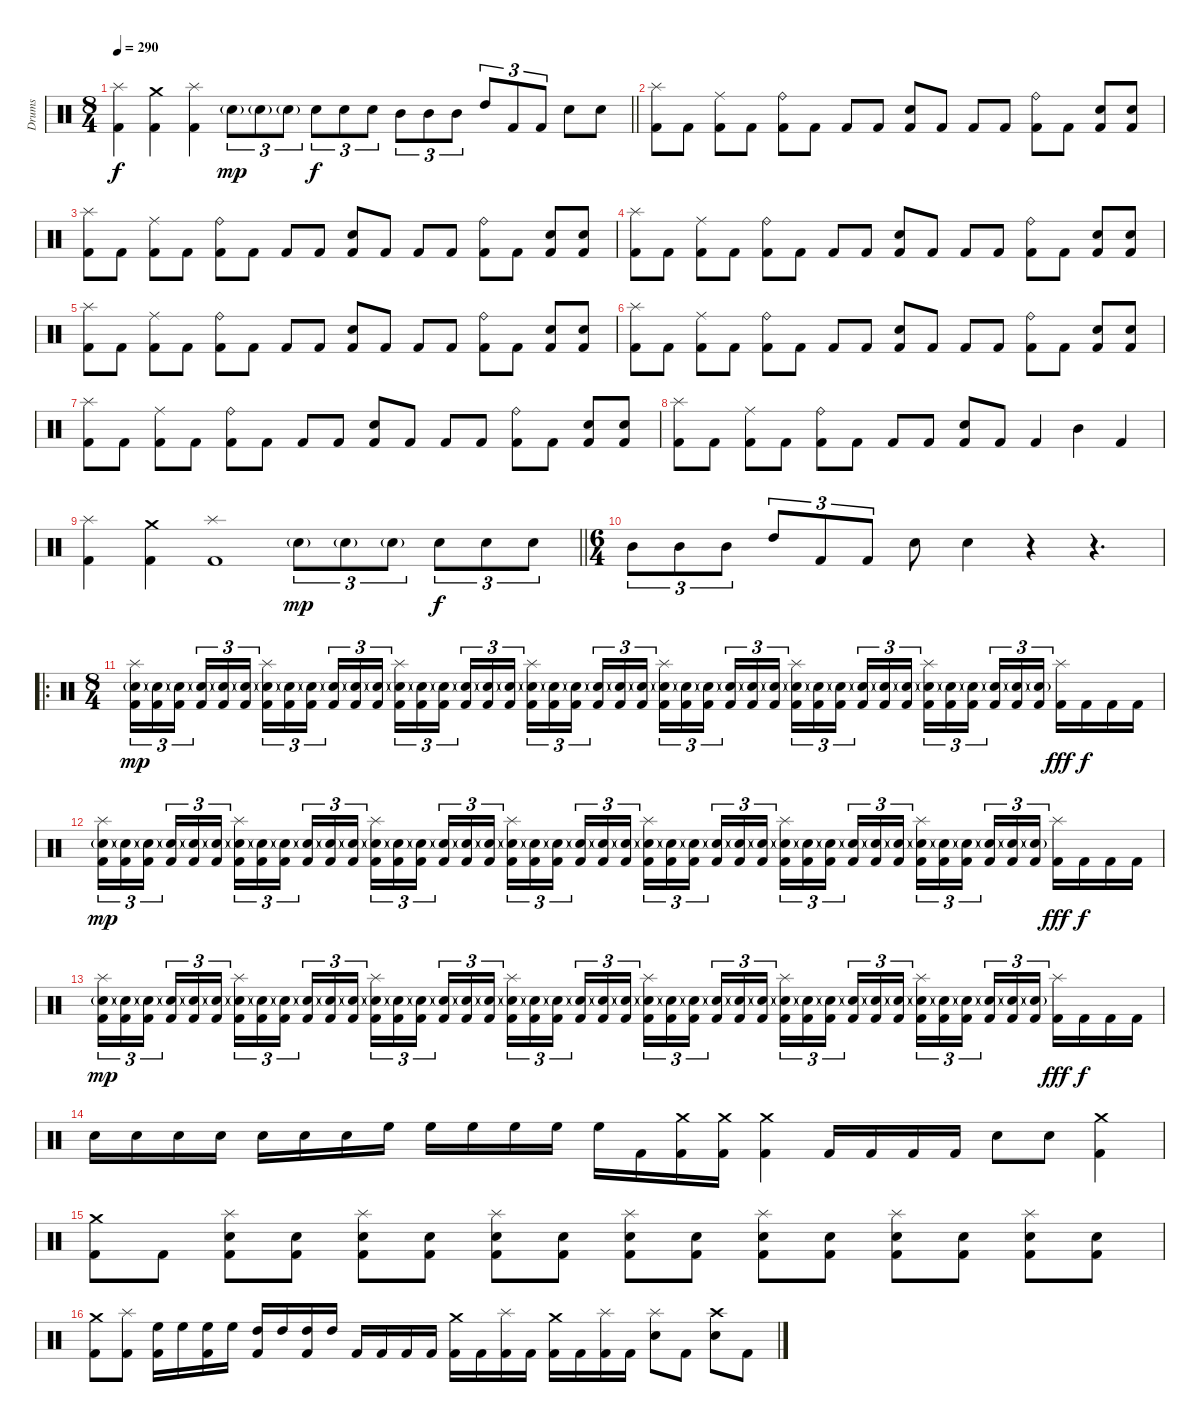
\track ("Drums" "Drums") {instrument percussion}
\staff {score}
\articulation defaults
\ts (8 4)
\tempo 290
\clef neutral
\barLineRight lightlight
\ks c
("Splash (hit)" "Kick (hit) 2").4{dy f} ("Crash medium (hit)" "Kick (hit) 2").4 ("Splash (hit)" "Kick (hit) 2").4 "Snare (hit) 2"{g}.8{tu (3 2) dy mp} "Snare (hit) 2"{g}.8{tu (3 2)} "Snare (hit) 2"{g}.8{tu (3 2)} "Snare (hit) 2".8{tu (3 2) dy f} "Snare (hit) 2".8{tu (3 2)} "Snare (hit) 2".8{tu (3 2)} "Mid Tom (hit)".8{tu (3 2)} "Mid Tom (hit)".8{tu (3 2)} "Mid Tom (hit)".8{tu (3 2)} "High Tom (hit)".8{tu (3 2)} "Kick (hit) 2".8{tu (3 2)} "Kick (hit) 2".8{tu (3 2)} "Snare (hit) 2".8 "Snare (hit) 2".8 |
("Splash (hit)" "Kick (hit) 2").8 "Kick (hit) 2".8 ("Ride (middle)" "Kick (hit) 2").8 "Kick (hit) 2".8 ("Ride (bell)" "Kick (hit) 2").8 "Kick (hit) 2".8 "Kick (hit) 2".8 "Kick (hit) 2".8 ("Snare (hit) 2" "Kick (hit) 2").8 "Kick (hit) 2".8 "Kick (hit) 2".8 "Kick (hit) 2".8 ("Ride (bell)" "Kick (hit) 2").8 "Kick (hit) 2".8 ("Snare (hit) 2" "Kick (hit) 2").8 ("Snare (hit) 2" "Kick (hit) 2").8 |
("Splash (hit)" "Kick (hit) 2").8 "Kick (hit) 2".8 ("Ride (middle)" "Kick (hit) 2").8 "Kick (hit) 2".8 ("Ride (bell)" "Kick (hit) 2").8 "Kick (hit) 2".8 "Kick (hit) 2".8 "Kick (hit) 2".8 ("Snare (hit) 2" "Kick (hit) 2").8 "Kick (hit) 2".8 "Kick (hit) 2".8 "Kick (hit) 2".8 ("Ride (bell)" "Kick (hit) 2").8 "Kick (hit) 2".8 ("Snare (hit) 2" "Kick (hit) 2").8 ("Snare (hit) 2" "Kick (hit) 2").8 |
("Splash (hit)" "Kick (hit) 2").8 "Kick (hit) 2".8 ("Ride (middle)" "Kick (hit) 2").8 "Kick (hit) 2".8 ("Ride (bell)" "Kick (hit) 2").8 "Kick (hit) 2".8 "Kick (hit) 2".8 "Kick (hit) 2".8 ("Snare (hit) 2" "Kick (hit) 2").8 "Kick (hit) 2".8 "Kick (hit) 2".8 "Kick (hit) 2".8 ("Ride (bell)" "Kick (hit) 2").8 "Kick (hit) 2".8 ("Snare (hit) 2" "Kick (hit) 2").8 ("Snare (hit) 2" "Kick (hit) 2").8 |
("Splash (hit)" "Kick (hit) 2").8 "Kick (hit) 2".8 ("Ride (middle)" "Kick (hit) 2").8 "Kick (hit) 2".8 ("Ride (bell)" "Kick (hit) 2").8 "Kick (hit) 2".8 "Kick (hit) 2".8 "Kick (hit) 2".8 ("Snare (hit) 2" "Kick (hit) 2").8 "Kick (hit) 2".8 "Kick (hit) 2".8 "Kick (hit) 2".8 ("Ride (bell)" "Kick (hit) 2").8 "Kick (hit) 2".8 ("Snare (hit) 2" "Kick (hit) 2").8 ("Snare (hit) 2" "Kick (hit) 2").8 |
("Splash (hit)" "Kick (hit) 2").8 "Kick (hit) 2".8 ("Ride (middle)" "Kick (hit) 2").8 "Kick (hit) 2".8 ("Ride (bell)" "Kick (hit) 2").8 "Kick (hit) 2".8 "Kick (hit) 2".8 "Kick (hit) 2".8 ("Snare (hit) 2" "Kick (hit) 2").8 "Kick (hit) 2".8 "Kick (hit) 2".8 "Kick (hit) 2".8 ("Ride (bell)" "Kick (hit) 2").8 "Kick (hit) 2".8 ("Snare (hit) 2" "Kick (hit) 2").8 ("Snare (hit) 2" "Kick (hit) 2").8 |
("Splash (hit)" "Kick (hit) 2").8 "Kick (hit) 2".8 ("Ride (middle)" "Kick (hit) 2").8 "Kick (hit) 2".8 ("Ride (bell)" "Kick (hit) 2").8 "Kick (hit) 2".8 "Kick (hit) 2".8 "Kick (hit) 2".8 ("Snare (hit) 2" "Kick (hit) 2").8 "Kick (hit) 2".8 "Kick (hit) 2".8 "Kick (hit) 2".8 ("Ride (bell)" "Kick (hit) 2").8 "Kick (hit) 2".8 ("Snare (hit) 2" "Kick (hit) 2").8 ("Snare (hit) 2" "Kick (hit) 2").8 |
("Splash (hit)" "Kick (hit) 2").8 "Kick (hit) 2".8 ("Ride (middle)" "Kick (hit) 2").8 "Kick (hit) 2".8 ("Ride (bell)" "Kick (hit) 2").8 "Kick (hit) 2".8 "Kick (hit) 2".8 "Kick (hit) 2".8 ("Snare (hit) 2" "Kick (hit) 2").8 "Kick (hit) 2".8 "Kick (hit) 2".4 "Mid Tom (hit)".4 "Kick (hit) 2".4 |
\barLineRight lightlight
("Splash (hit)" "Kick (hit) 2").4 ("Crash medium (hit)" "Kick (hit) 2").4 ("Splash (hit)" "Kick (hit) 2").1 "Snare (hit) 2"{g}.8{tu (3 2) dy mp} "Snare (hit) 2"{g}.8{tu (3 2)} "Snare (hit) 2"{g}.8{tu (3 2)} "Snare (hit) 2".8{tu (3 2) dy f} "Snare (hit) 2".8{tu (3 2)} "Snare (hit) 2".8{tu (3 2)} |
\ts (6 4)
"Mid Tom (hit)".8{tu (3 2)} "Mid Tom (hit)".8{tu (3 2)} "Mid Tom (hit)".8{tu (3 2)} "High Tom (hit)".8{tu (3 2)} "Kick (hit) 2".8{tu (3 2)} "Kick (hit) 2".8{tu (3 2)} "Snare (hit) 2".8 "Snare (hit) 2".4 r.4 r.4{d} |
\ro
\ts (8 4)
("Splash (hit)" "Snare (hit) 2"{g} "Kick (hit) 2").16{tu (3 2) dy mp} ("Snare (hit) 2"{g} "Kick (hit) 2").16{tu (3 2)} ("Snare (hit) 2"{g} "Kick (hit) 2").16{tu (3 2) beam splitsecondary} ("Snare (hit) 2"{g} "Kick (hit) 2").16{tu (3 2)} ("Snare (hit) 2"{g} "Kick (hit) 2").16{tu (3 2)} ("Snare (hit) 2"{g} "Kick (hit) 2").16{tu (3 2)} ("Splash (hit)" "Snare (hit) 2"{g} "Kick (hit) 2").16{tu (3 2)} ("Snare (hit) 2"{g} "Kick (hit) 2").16{tu (3 2)} ("Snare (hit) 2"{g} "Kick (hit) 2").16{tu (3 2) beam splitsecondary} ("Snare (hit) 2"{g} "Kick (hit) 2").16{tu (3 2)} ("Snare (hit) 2"{g} "Kick (hit) 2").16{tu (3 2)} ("Snare (hit) 2"{g} "Kick (hit) 2").16{tu (3 2)} ("Splash (hit)" "Snare (hit) 2"{g} "Kick (hit) 2").16{tu (3 2)} ("Snare (hit) 2"{g} "Kick (hit) 2").16{tu (3 2)} ("Snare (hit) 2"{g} "Kick (hit) 2").16{tu (3 2) beam splitsecondary} ("Snare (hit) 2"{g} "Kick (hit) 2").16{tu (3 2)} ("Snare (hit) 2"{g} "Kick (hit) 2").16{tu (3 2)} ("Snare (hit) 2"{g} "Kick (hit) 2").16{tu (3 2)} ("Splash (hit)" "Snare (hit) 2"{g} "Kick (hit) 2").16{tu (3 2)} ("Snare (hit) 2"{g} "Kick (hit) 2").16{tu (3 2)} ("Snare (hit) 2"{g} "Kick (hit) 2").16{tu (3 2) beam splitsecondary} ("Snare (hit) 2"{g} "Kick (hit) 2").16{tu (3 2)} ("Snare (hit) 2"{g} "Kick (hit) 2").16{tu (3 2)} ("Snare (hit) 2"{g} "Kick (hit) 2").16{tu (3 2)} ("Splash (hit)" "Snare (hit) 2"{g} "Kick (hit) 2").16{tu (3 2)} ("Snare (hit) 2"{g} "Kick (hit) 2").16{tu (3 2)} ("Snare (hit) 2"{g} "Kick (hit) 2").16{tu (3 2) beam splitsecondary} ("Snare (hit) 2"{g} "Kick (hit) 2").16{tu (3 2)} ("Snare (hit) 2"{g} "Kick (hit) 2").16{tu (3 2)} ("Snare (hit) 2"{g} "Kick (hit) 2").16{tu (3 2)} ("Splash (hit)" "Snare (hit) 2"{g} "Kick (hit) 2").16{tu (3 2)} ("Snare (hit) 2"{g} "Kick (hit) 2").16{tu (3 2)} ("Snare (hit) 2"{g} "Kick (hit) 2").16{tu (3 2) beam splitsecondary} ("Snare (hit) 2"{g} "Kick (hit) 2").16{tu (3 2)} ("Snare (hit) 2"{g} "Kick (hit) 2").16{tu (3 2)} ("Snare (hit) 2"{g} "Kick (hit) 2").16{tu (3 2)} ("Splash (hit)" "Snare (hit) 2"{g} "Kick (hit) 2").16{tu (3 2)} ("Snare (hit) 2"{g} "Kick (hit) 2").16{tu (3 2)} ("Snare (hit) 2"{g} "Kick (hit) 2").16{tu (3 2) beam splitsecondary} ("Snare (hit) 2"{g} "Kick (hit) 2").16{tu (3 2)} ("Snare (hit) 2"{g} "Kick (hit) 2").16{tu (3 2)} ("Snare (hit) 2"{g} "Kick (hit) 2").16{tu (3 2)} ("Splash (hit)" "Kick (hit) 2").16{dy fff} "Kick (hit) 2".16{dy f} "Kick (hit) 2".16 "Kick (hit) 2".16 |
("Splash (hit)" "Snare (hit) 2"{g} "Kick (hit) 2").16{tu (3 2) dy mp} ("Snare (hit) 2"{g} "Kick (hit) 2").16{tu (3 2)} ("Snare (hit) 2"{g} "Kick (hit) 2").16{tu (3 2) beam splitsecondary} ("Snare (hit) 2"{g} "Kick (hit) 2").16{tu (3 2)} ("Snare (hit) 2"{g} "Kick (hit) 2").16{tu (3 2)} ("Snare (hit) 2"{g} "Kick (hit) 2").16{tu (3 2)} ("Splash (hit)" "Snare (hit) 2"{g} "Kick (hit) 2").16{tu (3 2)} ("Snare (hit) 2"{g} "Kick (hit) 2").16{tu (3 2)} ("Snare (hit) 2"{g} "Kick (hit) 2").16{tu (3 2) beam splitsecondary} ("Snare (hit) 2"{g} "Kick (hit) 2").16{tu (3 2)} ("Snare (hit) 2"{g} "Kick (hit) 2").16{tu (3 2)} ("Snare (hit) 2"{g} "Kick (hit) 2").16{tu (3 2)} ("Splash (hit)" "Snare (hit) 2"{g} "Kick (hit) 2").16{tu (3 2)} ("Snare (hit) 2"{g} "Kick (hit) 2").16{tu (3 2)} ("Snare (hit) 2"{g} "Kick (hit) 2").16{tu (3 2) beam splitsecondary} ("Snare (hit) 2"{g} "Kick (hit) 2").16{tu (3 2)} ("Snare (hit) 2"{g} "Kick (hit) 2").16{tu (3 2)} ("Snare (hit) 2"{g} "Kick (hit) 2").16{tu (3 2)} ("Splash (hit)" "Snare (hit) 2"{g} "Kick (hit) 2").16{tu (3 2)} ("Snare (hit) 2"{g} "Kick (hit) 2").16{tu (3 2)} ("Snare (hit) 2"{g} "Kick (hit) 2").16{tu (3 2) beam splitsecondary} ("Snare (hit) 2"{g} "Kick (hit) 2").16{tu (3 2)} ("Snare (hit) 2"{g} "Kick (hit) 2").16{tu (3 2)} ("Snare (hit) 2"{g} "Kick (hit) 2").16{tu (3 2)} ("Splash (hit)" "Snare (hit) 2"{g} "Kick (hit) 2").16{tu (3 2)} ("Snare (hit) 2"{g} "Kick (hit) 2").16{tu (3 2)} ("Snare (hit) 2"{g} "Kick (hit) 2").16{tu (3 2) beam splitsecondary} ("Snare (hit) 2"{g} "Kick (hit) 2").16{tu (3 2)} ("Snare (hit) 2"{g} "Kick (hit) 2").16{tu (3 2)} ("Snare (hit) 2"{g} "Kick (hit) 2").16{tu (3 2)} ("Splash (hit)" "Snare (hit) 2"{g} "Kick (hit) 2").16{tu (3 2)} ("Snare (hit) 2"{g} "Kick (hit) 2").16{tu (3 2)} ("Snare (hit) 2"{g} "Kick (hit) 2").16{tu (3 2) beam splitsecondary} ("Snare (hit) 2"{g} "Kick (hit) 2").16{tu (3 2)} ("Snare (hit) 2"{g} "Kick (hit) 2").16{tu (3 2)} ("Snare (hit) 2"{g} "Kick (hit) 2").16{tu (3 2)} ("Splash (hit)" "Snare (hit) 2"{g} "Kick (hit) 2").16{tu (3 2)} ("Snare (hit) 2"{g} "Kick (hit) 2").16{tu (3 2)} ("Snare (hit) 2"{g} "Kick (hit) 2").16{tu (3 2) beam splitsecondary} ("Snare (hit) 2"{g} "Kick (hit) 2").16{tu (3 2)} ("Snare (hit) 2"{g} "Kick (hit) 2").16{tu (3 2)} ("Snare (hit) 2"{g} "Kick (hit) 2").16{tu (3 2)} ("Splash (hit)" "Kick (hit) 2").16{dy fff} "Kick (hit) 2".16{dy f} "Kick (hit) 2".16 "Kick (hit) 2".16 |
("Splash (hit)" "Snare (hit) 2"{g} "Kick (hit) 2").16{tu (3 2) dy mp} ("Snare (hit) 2"{g} "Kick (hit) 2").16{tu (3 2)} ("Snare (hit) 2"{g} "Kick (hit) 2").16{tu (3 2) beam splitsecondary} ("Snare (hit) 2"{g} "Kick (hit) 2").16{tu (3 2)} ("Snare (hit) 2"{g} "Kick (hit) 2").16{tu (3 2)} ("Snare (hit) 2"{g} "Kick (hit) 2").16{tu (3 2)} ("Splash (hit)" "Snare (hit) 2"{g} "Kick (hit) 2").16{tu (3 2)} ("Snare (hit) 2"{g} "Kick (hit) 2").16{tu (3 2)} ("Snare (hit) 2"{g} "Kick (hit) 2").16{tu (3 2) beam splitsecondary} ("Snare (hit) 2"{g} "Kick (hit) 2").16{tu (3 2)} ("Snare (hit) 2"{g} "Kick (hit) 2").16{tu (3 2)} ("Snare (hit) 2"{g} "Kick (hit) 2").16{tu (3 2)} ("Splash (hit)" "Snare (hit) 2"{g} "Kick (hit) 2").16{tu (3 2)} ("Snare (hit) 2"{g} "Kick (hit) 2").16{tu (3 2)} ("Snare (hit) 2"{g} "Kick (hit) 2").16{tu (3 2) beam splitsecondary} ("Snare (hit) 2"{g} "Kick (hit) 2").16{tu (3 2)} ("Snare (hit) 2"{g} "Kick (hit) 2").16{tu (3 2)} ("Snare (hit) 2"{g} "Kick (hit) 2").16{tu (3 2)} ("Splash (hit)" "Snare (hit) 2"{g} "Kick (hit) 2").16{tu (3 2)} ("Snare (hit) 2"{g} "Kick (hit) 2").16{tu (3 2)} ("Snare (hit) 2"{g} "Kick (hit) 2").16{tu (3 2) beam splitsecondary} ("Snare (hit) 2"{g} "Kick (hit) 2").16{tu (3 2)} ("Snare (hit) 2"{g} "Kick (hit) 2").16{tu (3 2)} ("Snare (hit) 2"{g} "Kick (hit) 2").16{tu (3 2)} ("Splash (hit)" "Snare (hit) 2"{g} "Kick (hit) 2").16{tu (3 2)} ("Snare (hit) 2"{g} "Kick (hit) 2").16{tu (3 2)} ("Snare (hit) 2"{g} "Kick (hit) 2").16{tu (3 2) beam splitsecondary} ("Snare (hit) 2"{g} "Kick (hit) 2").16{tu (3 2)} ("Snare (hit) 2"{g} "Kick (hit) 2").16{tu (3 2)} ("Snare (hit) 2"{g} "Kick (hit) 2").16{tu (3 2)} ("Splash (hit)" "Snare (hit) 2"{g} "Kick (hit) 2").16{tu (3 2)} ("Snare (hit) 2"{g} "Kick (hit) 2").16{tu (3 2)} ("Snare (hit) 2"{g} "Kick (hit) 2").16{tu (3 2) beam splitsecondary} ("Snare (hit) 2"{g} "Kick (hit) 2").16{tu (3 2)} ("Snare (hit) 2"{g} "Kick (hit) 2").16{tu (3 2)} ("Snare (hit) 2"{g} "Kick (hit) 2").16{tu (3 2)} ("Splash (hit)" "Snare (hit) 2"{g} "Kick (hit) 2").16{tu (3 2)} ("Snare (hit) 2"{g} "Kick (hit) 2").16{tu (3 2)} ("Snare (hit) 2"{g} "Kick (hit) 2").16{tu (3 2) beam splitsecondary} ("Snare (hit) 2"{g} "Kick (hit) 2").16{tu (3 2)} ("Snare (hit) 2"{g} "Kick (hit) 2").16{tu (3 2)} ("Snare (hit) 2"{g} "Kick (hit) 2").16{tu (3 2)} ("Splash (hit)" "Kick (hit) 2").16{dy fff} "Kick (hit) 2".16{dy f} "Kick (hit) 2".16 "Kick (hit) 2".16 |
"Snare (hit) 2".16 "Snare (hit) 2".16 "Snare (hit) 2".16 "Snare (hit) 2".16 "Snare (hit) 2".16 "Snare (hit) 2".16 "Snare (hit) 2".16 "High Floor Tom (hit)".16 "High Floor Tom (hit)".16 "High Floor Tom (hit)".16 "High Floor Tom (hit)".16 "High Floor Tom (hit)".16 "High Floor Tom (hit)".16 "Kick (hit) 2".16 ("Crash medium (hit)" "Kick (hit) 2").16 ("Crash medium (hit)" "Kick (hit) 2").16 ("Crash medium (hit)" "Kick (hit) 2").4 "Kick (hit) 2".16 "Kick (hit) 2".16 "Kick (hit) 2".16 "Kick (hit) 2".16 "Snare (hit) 2".8 "Snare (hit) 2".8 ("Crash medium (hit)" "Kick (hit) 2").4 |
("Crash medium (hit)" "Kick (hit) 2").8 "Kick (hit) 2".8 ("Splash (hit)" "Snare (hit) 2" "Kick (hit) 2").8 ("Snare (hit) 2" "Kick (hit) 2").8 ("Splash (hit)" "Snare (hit) 2" "Kick (hit) 2").8 ("Snare (hit) 2" "Kick (hit) 2").8 ("Splash (hit)" "Snare (hit) 2" "Kick (hit) 2").8 ("Snare (hit) 2" "Kick (hit) 2").8 ("Splash (hit)" "Snare (hit) 2" "Kick (hit) 2").8 ("Snare (hit) 2" "Kick (hit) 2").8 ("Splash (hit)" "Snare (hit) 2" "Kick (hit) 2").8 ("Snare (hit) 2" "Kick (hit) 2").8 ("Splash (hit)" "Snare (hit) 2" "Kick (hit) 2").8 ("Snare (hit) 2" "Kick (hit) 2").8 ("Splash (hit)" "Snare (hit) 2" "Kick (hit) 2").8 ("Snare (hit) 2" "Kick (hit) 2").8 |
("Crash medium (hit)" "Kick (hit) 2").8 ("Splash (hit)" "Kick (hit) 2").8 ("High Floor Tom (hit)" "Kick (hit) 2").16 "High Floor Tom (hit)".16 ("High Floor Tom (hit)" "Kick (hit) 2").16 "High Floor Tom (hit)".16 ("High Tom (hit)" "Kick (hit) 2").16 "High Tom (hit)".16 ("High Tom (hit)" "Kick (hit) 2").16 "High Tom (hit)".16 "Kick (hit) 2".16 "Kick (hit) 2".16 "Kick (hit) 2".16 "Kick (hit) 2".16 ("Crash medium (hit)" "Kick (hit) 2").16 "Kick (hit) 2".16 ("Splash (hit)" "Kick (hit) 2").16 "Kick (hit) 2".16 ("Crash medium (hit)" "Kick (hit) 2").16 "Kick (hit) 2".16 ("Splash (hit)" "Kick (hit) 2").16 "Kick (hit) 2".16 ("Splash (hit)" "Snare (hit) 2").8 "Kick (hit) 2".8 ("Crash high (hit)" "Snare (hit) 2").8 "Kick (hit) 2".8
